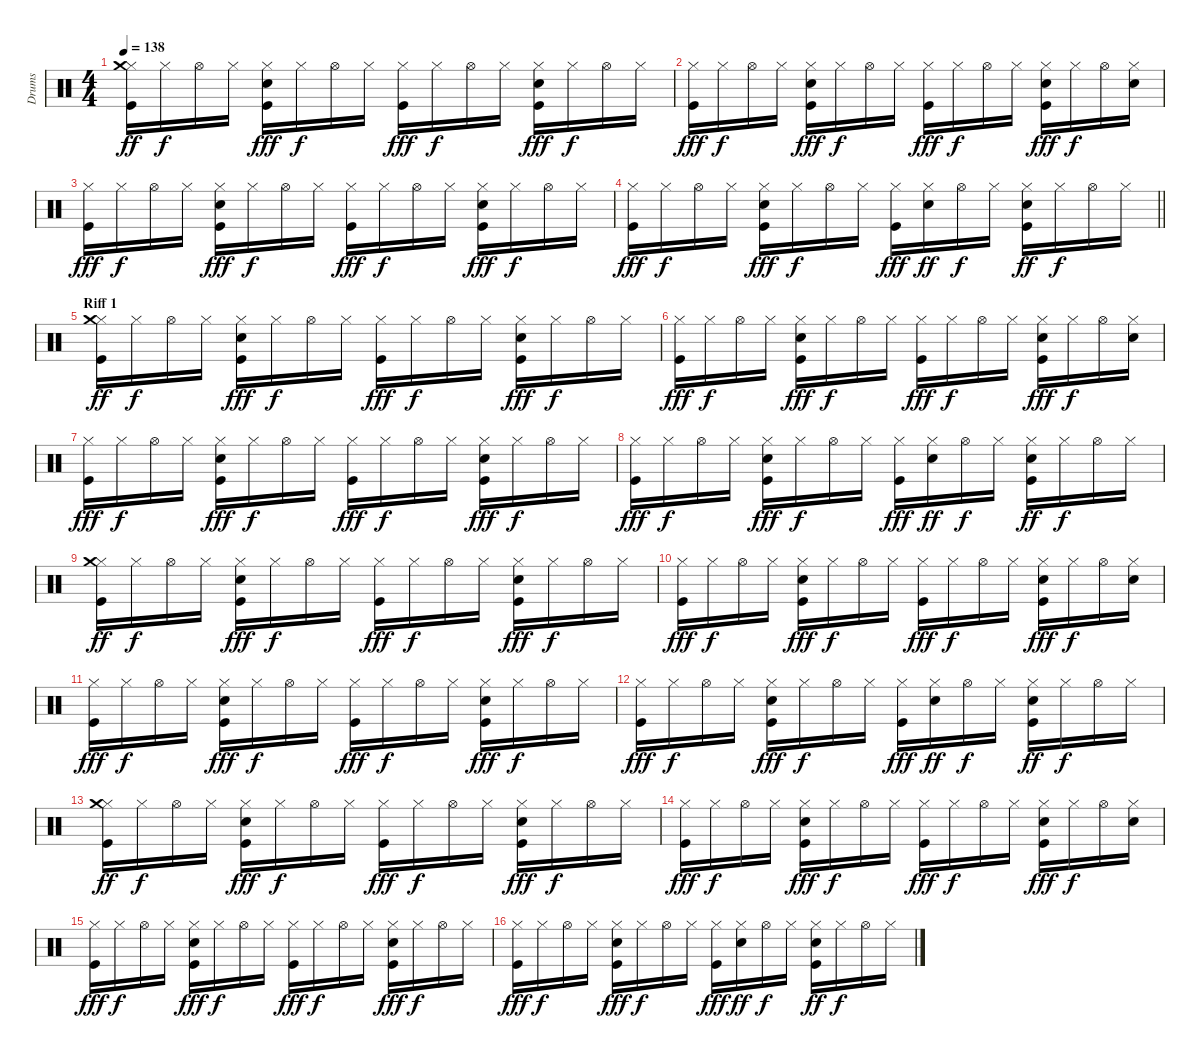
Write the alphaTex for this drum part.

\track ("Drums" "Drums") {instrument percussion}
\staff {score}
\articulation defaults
\ts (4 4)
\tempo 138
\clef neutral
\ks c
("Kick (hit)" "Hi-Hat (closed)" "Crash medium (hit)").16{dy ff} "Hi-Hat (closed)".16{dy f} "Hi-Hat (open)".16 "Hi-Hat (closed)".16 ("Kick (hit)" "Electric Snare (hit)" "Hi-Hat (closed)").16{dy fff} "Hi-Hat (closed)".16{dy f} "Hi-Hat (open)".16 "Hi-Hat (closed)".16 ("Kick (hit)" "Hi-Hat (closed)").16{dy fff} "Hi-Hat (closed)".16{dy f} "Hi-Hat (open)".16 "Hi-Hat (closed)".16 ("Kick (hit)" "Electric Snare (hit)" "Hi-Hat (closed)").16{dy fff} "Hi-Hat (closed)".16{dy f} "Hi-Hat (open)".16 "Hi-Hat (closed)".16 |
("Kick (hit)" "Hi-Hat (closed)").16{dy fff} "Hi-Hat (closed)".16{dy f} "Hi-Hat (open)".16 "Hi-Hat (closed)".16 ("Kick (hit)" "Electric Snare (hit)" "Hi-Hat (closed)").16{dy fff} "Hi-Hat (closed)".16{dy f} "Hi-Hat (open)".16 "Hi-Hat (closed)".16 ("Kick (hit)" "Hi-Hat (closed)").16{dy fff} "Hi-Hat (closed)".16{dy f} "Hi-Hat (open)".16 "Hi-Hat (closed)".16 ("Kick (hit)" "Electric Snare (hit)" "Hi-Hat (closed)").16{dy fff} "Hi-Hat (closed)".16{dy f} "Hi-Hat (open)".16 ("Electric Snare (hit)" "Hi-Hat (closed)").16 |
("Kick (hit)" "Hi-Hat (closed)").16{dy fff} "Hi-Hat (closed)".16{dy f} "Hi-Hat (open)".16 "Hi-Hat (closed)".16 ("Kick (hit)" "Electric Snare (hit)" "Hi-Hat (closed)").16{dy fff} "Hi-Hat (closed)".16{dy f} "Hi-Hat (open)".16 "Hi-Hat (closed)".16 ("Kick (hit)" "Hi-Hat (closed)").16{dy fff} "Hi-Hat (closed)".16{dy f} "Hi-Hat (open)".16 "Hi-Hat (closed)".16 ("Kick (hit)" "Electric Snare (hit)" "Hi-Hat (closed)").16{dy fff} "Hi-Hat (closed)".16{dy f} "Hi-Hat (open)".16 "Hi-Hat (closed)".16 |
\barLineRight lightlight
("Kick (hit)" "Hi-Hat (closed)").16{dy fff} "Hi-Hat (closed)".16{dy f} "Hi-Hat (open)".16 "Hi-Hat (closed)".16 ("Kick (hit)" "Electric Snare (hit)" "Hi-Hat (closed)").16{dy fff} "Hi-Hat (closed)".16{dy f} "Hi-Hat (open)".16 "Hi-Hat (closed)".16 ("Kick (hit)" "Hi-Hat (closed)").16{dy fff} ("Electric Snare (hit)" "Hi-Hat (closed)").16{dy ff} "Hi-Hat (open)".16{dy f} "Hi-Hat (closed)".16 ("Kick (hit)" "Electric Snare (hit)" "Hi-Hat (closed)").16{dy ff} "Hi-Hat (closed)".16{dy f} "Hi-Hat (open)".16 "Hi-Hat (closed)".16 |
\section ("" "Riff 1")
("Kick (hit)" "Hi-Hat (closed)" "Crash medium (hit)").16{dy ff} "Hi-Hat (closed)".16{dy f} "Hi-Hat (open)".16 "Hi-Hat (closed)".16 ("Kick (hit)" "Electric Snare (hit)" "Hi-Hat (closed)").16{dy fff} "Hi-Hat (closed)".16{dy f} "Hi-Hat (open)".16 "Hi-Hat (closed)".16 ("Kick (hit)" "Hi-Hat (closed)").16{dy fff} "Hi-Hat (closed)".16{dy f} "Hi-Hat (open)".16 "Hi-Hat (closed)".16 ("Kick (hit)" "Electric Snare (hit)" "Hi-Hat (closed)").16{dy fff} "Hi-Hat (closed)".16{dy f} "Hi-Hat (open)".16 "Hi-Hat (closed)".16 |
("Kick (hit)" "Hi-Hat (closed)").16{dy fff} "Hi-Hat (closed)".16{dy f} "Hi-Hat (open)".16 "Hi-Hat (closed)".16 ("Kick (hit)" "Electric Snare (hit)" "Hi-Hat (closed)").16{dy fff} "Hi-Hat (closed)".16{dy f} "Hi-Hat (open)".16 "Hi-Hat (closed)".16 ("Kick (hit)" "Hi-Hat (closed)").16{dy fff} "Hi-Hat (closed)".16{dy f} "Hi-Hat (open)".16 "Hi-Hat (closed)".16 ("Kick (hit)" "Electric Snare (hit)" "Hi-Hat (closed)").16{dy fff} "Hi-Hat (closed)".16{dy f} "Hi-Hat (open)".16 ("Electric Snare (hit)" "Hi-Hat (closed)").16 |
("Kick (hit)" "Hi-Hat (closed)").16{dy fff} "Hi-Hat (closed)".16{dy f} "Hi-Hat (open)".16 "Hi-Hat (closed)".16 ("Kick (hit)" "Electric Snare (hit)" "Hi-Hat (closed)").16{dy fff} "Hi-Hat (closed)".16{dy f} "Hi-Hat (open)".16 "Hi-Hat (closed)".16 ("Kick (hit)" "Hi-Hat (closed)").16{dy fff} "Hi-Hat (closed)".16{dy f} "Hi-Hat (open)".16 "Hi-Hat (closed)".16 ("Kick (hit)" "Electric Snare (hit)" "Hi-Hat (closed)").16{dy fff} "Hi-Hat (closed)".16{dy f} "Hi-Hat (open)".16 "Hi-Hat (closed)".16 |
("Kick (hit)" "Hi-Hat (closed)").16{dy fff} "Hi-Hat (closed)".16{dy f} "Hi-Hat (open)".16 "Hi-Hat (closed)".16 ("Kick (hit)" "Electric Snare (hit)" "Hi-Hat (closed)").16{dy fff} "Hi-Hat (closed)".16{dy f} "Hi-Hat (open)".16 "Hi-Hat (closed)".16 ("Kick (hit)" "Hi-Hat (closed)").16{dy fff} ("Electric Snare (hit)" "Hi-Hat (closed)").16{dy ff} "Hi-Hat (open)".16{dy f} "Hi-Hat (closed)".16 ("Kick (hit)" "Electric Snare (hit)" "Hi-Hat (closed)").16{dy ff} "Hi-Hat (closed)".16{dy f} "Hi-Hat (open)".16 "Hi-Hat (closed)".16 |
("Kick (hit)" "Hi-Hat (closed)" "Crash medium (hit)").16{dy ff} "Hi-Hat (closed)".16{dy f} "Hi-Hat (open)".16 "Hi-Hat (closed)".16 ("Kick (hit)" "Electric Snare (hit)" "Hi-Hat (closed)").16{dy fff} "Hi-Hat (closed)".16{dy f} "Hi-Hat (open)".16 "Hi-Hat (closed)".16 ("Kick (hit)" "Hi-Hat (closed)").16{dy fff} "Hi-Hat (closed)".16{dy f} "Hi-Hat (open)".16 "Hi-Hat (closed)".16 ("Kick (hit)" "Electric Snare (hit)" "Hi-Hat (closed)").16{dy fff} "Hi-Hat (closed)".16{dy f} "Hi-Hat (open)".16 "Hi-Hat (closed)".16 |
("Kick (hit)" "Hi-Hat (closed)").16{dy fff} "Hi-Hat (closed)".16{dy f} "Hi-Hat (open)".16 "Hi-Hat (closed)".16 ("Kick (hit)" "Electric Snare (hit)" "Hi-Hat (closed)").16{dy fff} "Hi-Hat (closed)".16{dy f} "Hi-Hat (open)".16 "Hi-Hat (closed)".16 ("Kick (hit)" "Hi-Hat (closed)").16{dy fff} "Hi-Hat (closed)".16{dy f} "Hi-Hat (open)".16 "Hi-Hat (closed)".16 ("Kick (hit)" "Electric Snare (hit)" "Hi-Hat (closed)").16{dy fff} "Hi-Hat (closed)".16{dy f} "Hi-Hat (open)".16 ("Electric Snare (hit)" "Hi-Hat (closed)").16 |
("Kick (hit)" "Hi-Hat (closed)").16{dy fff} "Hi-Hat (closed)".16{dy f} "Hi-Hat (open)".16 "Hi-Hat (closed)".16 ("Kick (hit)" "Electric Snare (hit)" "Hi-Hat (closed)").16{dy fff} "Hi-Hat (closed)".16{dy f} "Hi-Hat (open)".16 "Hi-Hat (closed)".16 ("Kick (hit)" "Hi-Hat (closed)").16{dy fff} "Hi-Hat (closed)".16{dy f} "Hi-Hat (open)".16 "Hi-Hat (closed)".16 ("Kick (hit)" "Electric Snare (hit)" "Hi-Hat (closed)").16{dy fff} "Hi-Hat (closed)".16{dy f} "Hi-Hat (open)".16 "Hi-Hat (closed)".16 |
("Kick (hit)" "Hi-Hat (closed)").16{dy fff} "Hi-Hat (closed)".16{dy f} "Hi-Hat (open)".16 "Hi-Hat (closed)".16 ("Kick (hit)" "Electric Snare (hit)" "Hi-Hat (closed)").16{dy fff} "Hi-Hat (closed)".16{dy f} "Hi-Hat (open)".16 "Hi-Hat (closed)".16 ("Kick (hit)" "Hi-Hat (closed)").16{dy fff} ("Electric Snare (hit)" "Hi-Hat (closed)").16{dy ff} "Hi-Hat (open)".16{dy f} "Hi-Hat (closed)".16 ("Kick (hit)" "Electric Snare (hit)" "Hi-Hat (closed)").16{dy ff} "Hi-Hat (closed)".16{dy f} "Hi-Hat (open)".16 "Hi-Hat (closed)".16 |
("Kick (hit)" "Hi-Hat (closed)" "Crash medium (hit)").16{dy ff} "Hi-Hat (closed)".16{dy f} "Hi-Hat (open)".16 "Hi-Hat (closed)".16 ("Kick (hit)" "Electric Snare (hit)" "Hi-Hat (closed)").16{dy fff} "Hi-Hat (closed)".16{dy f} "Hi-Hat (open)".16 "Hi-Hat (closed)".16 ("Kick (hit)" "Hi-Hat (closed)").16{dy fff} "Hi-Hat (closed)".16{dy f} "Hi-Hat (open)".16 "Hi-Hat (closed)".16 ("Kick (hit)" "Electric Snare (hit)" "Hi-Hat (closed)").16{dy fff} "Hi-Hat (closed)".16{dy f} "Hi-Hat (open)".16 "Hi-Hat (closed)".16 |
("Kick (hit)" "Hi-Hat (closed)").16{dy fff} "Hi-Hat (closed)".16{dy f} "Hi-Hat (open)".16 "Hi-Hat (closed)".16 ("Kick (hit)" "Electric Snare (hit)" "Hi-Hat (closed)").16{dy fff} "Hi-Hat (closed)".16{dy f} "Hi-Hat (open)".16 "Hi-Hat (closed)".16 ("Kick (hit)" "Hi-Hat (closed)").16{dy fff} "Hi-Hat (closed)".16{dy f} "Hi-Hat (open)".16 "Hi-Hat (closed)".16 ("Kick (hit)" "Electric Snare (hit)" "Hi-Hat (closed)").16{dy fff} "Hi-Hat (closed)".16{dy f} "Hi-Hat (open)".16 ("Electric Snare (hit)" "Hi-Hat (closed)").16 |
("Kick (hit)" "Hi-Hat (closed)").16{dy fff} "Hi-Hat (closed)".16{dy f} "Hi-Hat (open)".16 "Hi-Hat (closed)".16 ("Kick (hit)" "Electric Snare (hit)" "Hi-Hat (closed)").16{dy fff} "Hi-Hat (closed)".16{dy f} "Hi-Hat (open)".16 "Hi-Hat (closed)".16 ("Kick (hit)" "Hi-Hat (closed)").16{dy fff} "Hi-Hat (closed)".16{dy f} "Hi-Hat (open)".16 "Hi-Hat (closed)".16 ("Kick (hit)" "Electric Snare (hit)" "Hi-Hat (closed)").16{dy fff} "Hi-Hat (closed)".16{dy f} "Hi-Hat (open)".16 "Hi-Hat (closed)".16 |
("Kick (hit)" "Hi-Hat (closed)").16{dy fff} "Hi-Hat (closed)".16{dy f} "Hi-Hat (open)".16 "Hi-Hat (closed)".16 ("Kick (hit)" "Electric Snare (hit)" "Hi-Hat (closed)").16{dy fff} "Hi-Hat (closed)".16{dy f} "Hi-Hat (open)".16 "Hi-Hat (closed)".16 ("Kick (hit)" "Hi-Hat (closed)").16{dy fff} ("Electric Snare (hit)" "Hi-Hat (closed)").16{dy ff} "Hi-Hat (open)".16{dy f} "Hi-Hat (closed)".16 ("Kick (hit)" "Electric Snare (hit)" "Hi-Hat (closed)").16{dy ff} "Hi-Hat (closed)".16{dy f} "Hi-Hat (open)".16 "Hi-Hat (closed)".16
